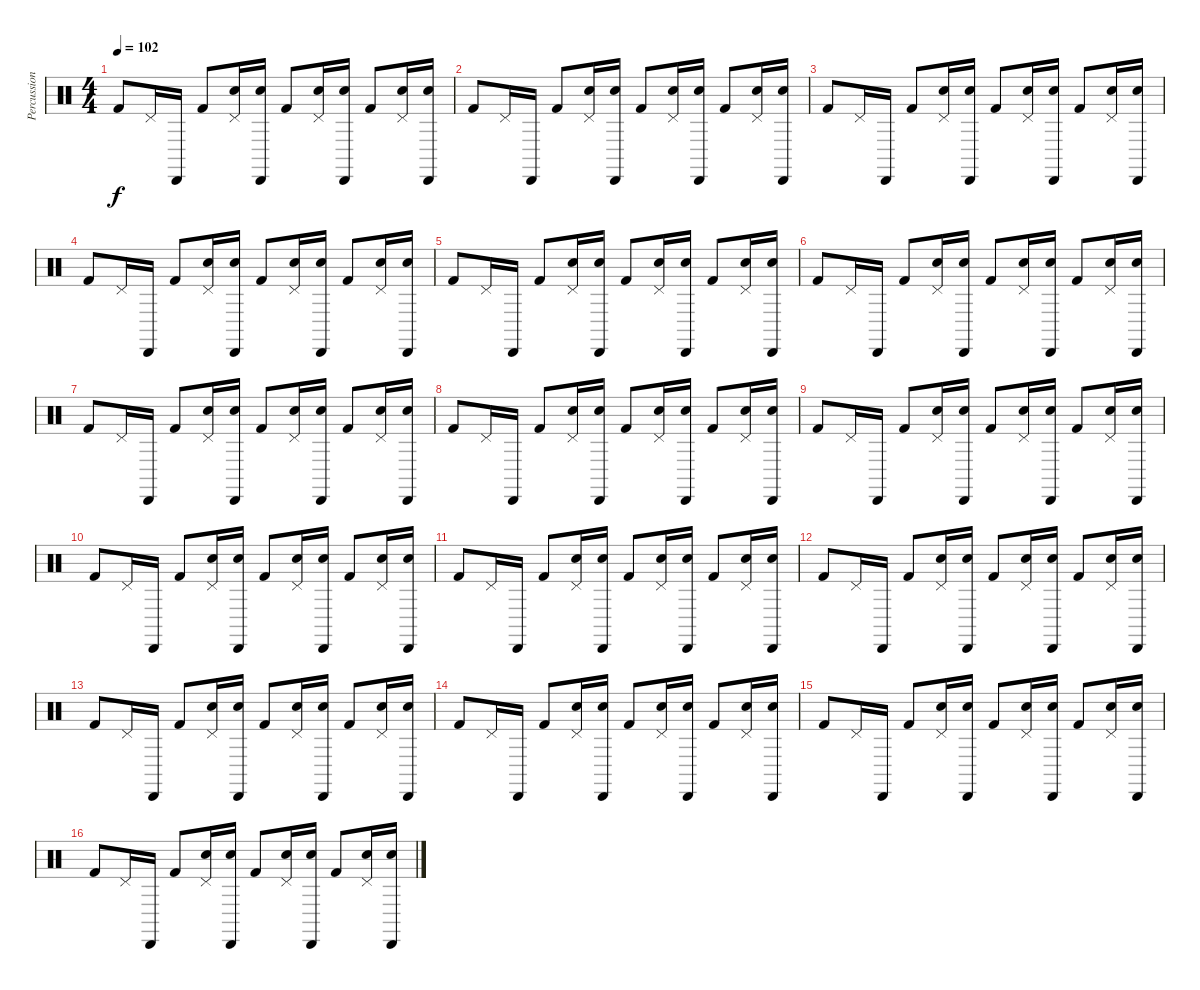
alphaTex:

\track ("Percussions" "Percussion") {instrument percussion}
\staff {score}
\articulation defaults
\ts (4 4)
\tempo 102
\clef neutral
\ks c "Kick (hit) 2".8{dy f} "Pedal Hi-Hat (hit)".16 "Cabasa (hit)".16 "Kick (hit) 2".8
("Snare (hit) 2" "Pedal Hi-Hat (hit)").16 ("Snare (hit) 2" "Cabasa (hit)").16 "Kick (hit) 2".8 ("Snare (hit) 2" "Pedal Hi-Hat (hit)").16 ("Snare (hit) 2" "Cabasa (hit)").16 "Kick (hit) 2".8 ("Snare (hit) 2" "Pedal Hi-Hat (hit)").16 ("Snare (hit) 2" "Cabasa (hit)").16 |
"Kick (hit) 2".8 "Pedal Hi-Hat (hit)".16 "Cabasa (hit)".16 "Kick (hit) 2".8 ("Snare (hit) 2" "Pedal Hi-Hat (hit)").16 ("Snare (hit) 2" "Cabasa (hit)").16 "Kick (hit) 2".8 ("Snare (hit) 2" "Pedal Hi-Hat (hit)").16 ("Snare (hit) 2" "Cabasa (hit)").16 "Kick (hit) 2".8 ("Snare (hit) 2" "Pedal Hi-Hat (hit)").16 ("Snare (hit) 2" "Cabasa (hit)").16 |
"Kick (hit) 2".8 "Pedal Hi-Hat (hit)".16 "Cabasa (hit)".16 "Kick (hit) 2".8 ("Snare (hit) 2" "Pedal Hi-Hat (hit)").16 ("Snare (hit) 2" "Cabasa (hit)").16 "Kick (hit) 2".8 ("Snare (hit) 2" "Pedal Hi-Hat (hit)").16 ("Snare (hit) 2" "Cabasa (hit)").16 "Kick (hit) 2".8 ("Snare (hit) 2" "Pedal Hi-Hat (hit)").16 ("Snare (hit) 2" "Cabasa (hit)").16 |
"Kick (hit) 2".8 "Pedal Hi-Hat (hit)".16 "Cabasa (hit)".16 "Kick (hit) 2".8 ("Snare (hit) 2" "Pedal Hi-Hat (hit)").16 ("Snare (hit) 2" "Cabasa (hit)").16 "Kick (hit) 2".8 ("Snare (hit) 2" "Pedal Hi-Hat (hit)").16 ("Snare (hit) 2" "Cabasa (hit)").16 "Kick (hit) 2".8 ("Snare (hit) 2" "Pedal Hi-Hat (hit)").16 ("Snare (hit) 2" "Cabasa (hit)").16 |
"Kick (hit) 2".8 "Pedal Hi-Hat (hit)".16 "Cabasa (hit)".16 "Kick (hit) 2".8 ("Snare (hit) 2" "Pedal Hi-Hat (hit)").16 ("Snare (hit) 2" "Cabasa (hit)").16 "Kick (hit) 2".8 ("Snare (hit) 2" "Pedal Hi-Hat (hit)").16 ("Snare (hit) 2" "Cabasa (hit)").16 "Kick (hit) 2".8 ("Snare (hit) 2" "Pedal Hi-Hat (hit)").16 ("Snare (hit) 2" "Cabasa (hit)").16 |
"Kick (hit) 2".8 "Pedal Hi-Hat (hit)".16 "Cabasa (hit)".16 "Kick (hit) 2".8 ("Snare (hit) 2" "Pedal Hi-Hat (hit)").16 ("Snare (hit) 2" "Cabasa (hit)").16 "Kick (hit) 2".8 ("Snare (hit) 2" "Pedal Hi-Hat (hit)").16 ("Snare (hit) 2" "Cabasa (hit)").16 "Kick (hit) 2".8 ("Snare (hit) 2" "Pedal Hi-Hat (hit)").16 ("Snare (hit) 2" "Cabasa (hit)").16 |
"Kick (hit) 2".8 "Pedal Hi-Hat (hit)".16 "Cabasa (hit)".16 "Kick (hit) 2".8 ("Snare (hit) 2" "Pedal Hi-Hat (hit)").16 ("Snare (hit) 2" "Cabasa (hit)").16 "Kick (hit) 2".8 ("Snare (hit) 2" "Pedal Hi-Hat (hit)").16 ("Snare (hit) 2" "Cabasa (hit)").16 "Kick (hit) 2".8 ("Snare (hit) 2" "Pedal Hi-Hat (hit)").16 ("Snare (hit) 2" "Cabasa (hit)").16 |
"Kick (hit) 2".8 "Pedal Hi-Hat (hit)".16 "Cabasa (hit)".16 "Kick (hit) 2".8 ("Snare (hit) 2" "Pedal Hi-Hat (hit)").16 ("Snare (hit) 2" "Cabasa (hit)").16 "Kick (hit) 2".8 ("Snare (hit) 2" "Pedal Hi-Hat (hit)").16 ("Snare (hit) 2" "Cabasa (hit)").16 "Kick (hit) 2".8 ("Snare (hit) 2" "Pedal Hi-Hat (hit)").16 ("Snare (hit) 2" "Cabasa (hit)").16 |
"Kick (hit) 2".8 "Pedal Hi-Hat (hit)".16 "Cabasa (hit)".16 "Kick (hit) 2".8 ("Snare (hit) 2" "Pedal Hi-Hat (hit)").16 ("Snare (hit) 2" "Cabasa (hit)").16 "Kick (hit) 2".8 ("Snare (hit) 2" "Pedal Hi-Hat (hit)").16 ("Snare (hit) 2" "Cabasa (hit)").16 "Kick (hit) 2".8 ("Snare (hit) 2" "Pedal Hi-Hat (hit)").16 ("Snare (hit) 2" "Cabasa (hit)").16 |
"Kick (hit) 2".8 "Pedal Hi-Hat (hit)".16 "Cabasa (hit)".16 "Kick (hit) 2".8 ("Snare (hit) 2" "Pedal Hi-Hat (hit)").16 ("Snare (hit) 2" "Cabasa (hit)").16 "Kick (hit) 2".8 ("Snare (hit) 2" "Pedal Hi-Hat (hit)").16 ("Snare (hit) 2" "Cabasa (hit)").16 "Kick (hit) 2".8 ("Snare (hit) 2" "Pedal Hi-Hat (hit)").16 ("Snare (hit) 2" "Cabasa (hit)").16 |
"Kick (hit) 2".8 "Pedal Hi-Hat (hit)".16 "Cabasa (hit)".16 "Kick (hit) 2".8 ("Snare (hit) 2" "Pedal Hi-Hat (hit)").16 ("Snare (hit) 2" "Cabasa (hit)").16 "Kick (hit) 2".8 ("Snare (hit) 2" "Pedal Hi-Hat (hit)").16 ("Snare (hit) 2" "Cabasa (hit)").16 "Kick (hit) 2".8 ("Snare (hit) 2" "Pedal Hi-Hat (hit)").16 ("Snare (hit) 2" "Cabasa (hit)").16 |
"Kick (hit) 2".8 "Pedal Hi-Hat (hit)".16 "Cabasa (hit)".16 "Kick (hit) 2".8 ("Snare (hit) 2" "Pedal Hi-Hat (hit)").16 ("Snare (hit) 2" "Cabasa (hit)").16 "Kick (hit) 2".8 ("Snare (hit) 2" "Pedal Hi-Hat (hit)").16 ("Snare (hit) 2" "Cabasa (hit)").16 "Kick (hit) 2".8 ("Snare (hit) 2" "Pedal Hi-Hat (hit)").16 ("Snare (hit) 2" "Cabasa (hit)").16 |
"Kick (hit) 2".8 "Pedal Hi-Hat (hit)".16 "Cabasa (hit)".16 "Kick (hit) 2".8 ("Snare (hit) 2" "Pedal Hi-Hat (hit)").16 ("Snare (hit) 2" "Cabasa (hit)").16 "Kick (hit) 2".8 ("Snare (hit) 2" "Pedal Hi-Hat (hit)").16 ("Snare (hit) 2" "Cabasa (hit)").16 "Kick (hit) 2".8 ("Snare (hit) 2" "Pedal Hi-Hat (hit)").16 ("Snare (hit) 2" "Cabasa (hit)").16 |
"Kick (hit) 2".8 "Pedal Hi-Hat (hit)".16 "Cabasa (hit)".16 "Kick (hit) 2".8 ("Snare (hit) 2" "Pedal Hi-Hat (hit)").16 ("Snare (hit) 2" "Cabasa (hit)").16 "Kick (hit) 2".8 ("Snare (hit) 2" "Pedal Hi-Hat (hit)").16 ("Snare (hit) 2" "Cabasa (hit)").16 "Kick (hit) 2".8 ("Snare (hit) 2" "Pedal Hi-Hat (hit)").16 ("Snare (hit) 2" "Cabasa (hit)").16 |
"Kick (hit) 2".8 "Pedal Hi-Hat (hit)".16 "Cabasa (hit)".16 "Kick (hit) 2".8 ("Snare (hit) 2" "Pedal Hi-Hat (hit)").16 ("Snare (hit) 2" "Cabasa (hit)").16 "Kick (hit) 2".8 ("Snare (hit) 2" "Pedal Hi-Hat (hit)").16 ("Snare (hit) 2" "Cabasa (hit)").16 "Kick (hit) 2".8 ("Snare (hit) 2" "Pedal Hi-Hat (hit)").16 ("Snare (hit) 2" "Cabasa (hit)").16 |
"Kick (hit) 2".8 "Pedal Hi-Hat (hit)".16 "Cabasa (hit)".16 "Kick (hit) 2".8 ("Snare (hit) 2" "Pedal Hi-Hat (hit)").16 ("Snare (hit) 2" "Cabasa (hit)").16 "Kick (hit) 2".8 ("Snare (hit) 2" "Pedal Hi-Hat (hit)").16 ("Snare (hit) 2" "Cabasa (hit)").16 "Kick (hit) 2".8 ("Snare (hit) 2" "Pedal Hi-Hat (hit)").16 ("Snare (hit) 2" "Cabasa (hit)").16
